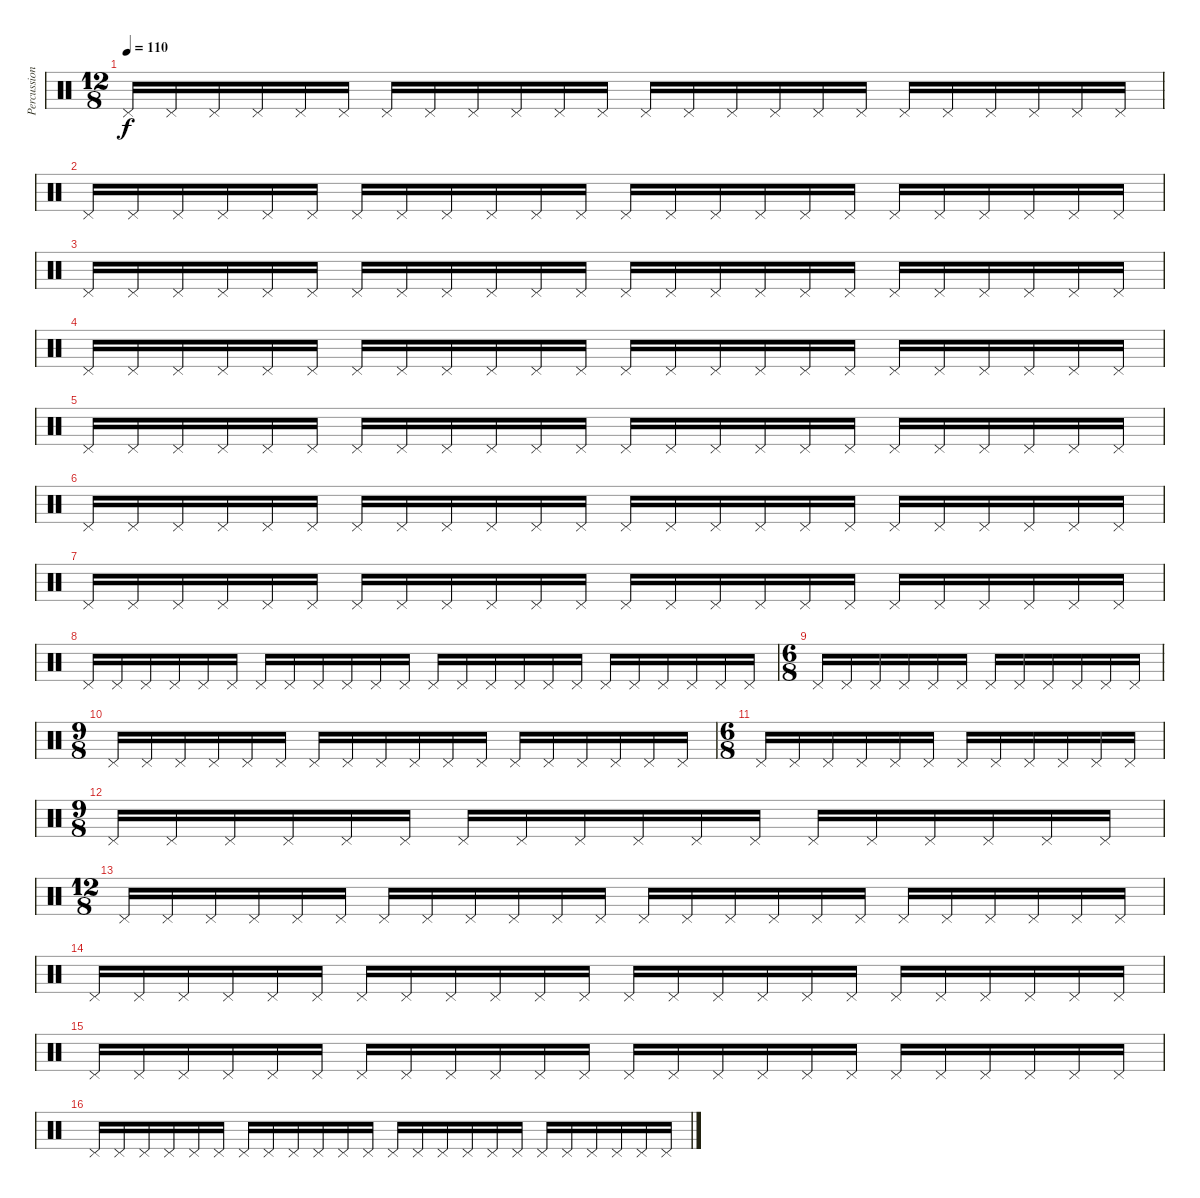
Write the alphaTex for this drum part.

\track ("Percussion" "Percussion") {instrument percussion}
\staff {score}
\articulation defaults
\ts (12 8)
\section ("" " ")
\tempo 110
\clef neutral
\ks c "Pedal Hi-Hat (hit)".16{dy f} "Pedal Hi-Hat (hit)".16 "Pedal Hi-Hat (hit)".16 "Pedal Hi-Hat (hit)".16 "Pedal Hi-Hat (hit)".16 "Pedal Hi-Hat (hit)".16 "Pedal Hi-Hat (hit)".16 "Pedal Hi-Hat (hit)".16 "Pedal Hi-Hat (hit)".16 "Pedal Hi-Hat (hit)".16 "Pedal Hi-Hat (hit)".16 "Pedal Hi-Hat (hit)".16 "Pedal Hi-Hat (hit)".16 "Pedal Hi-Hat (hit)".16 "Pedal Hi-Hat (hit)".16 "Pedal Hi-Hat (hit)".16 "Pedal Hi-Hat (hit)".16 "Pedal Hi-Hat (hit)".16 "Pedal Hi-Hat (hit)".16 "Pedal Hi-Hat (hit)".16 "Pedal Hi-Hat (hit)".16 "Pedal Hi-Hat (hit)".16 "Pedal Hi-Hat (hit)".16 "Pedal Hi-Hat (hit)".16
|
"Pedal Hi-Hat (hit)".16 "Pedal Hi-Hat (hit)".16 "Pedal Hi-Hat (hit)".16 "Pedal Hi-Hat (hit)".16 "Pedal Hi-Hat (hit)".16 "Pedal Hi-Hat (hit)".16 "Pedal Hi-Hat (hit)".16 "Pedal Hi-Hat (hit)".16 "Pedal Hi-Hat (hit)".16 "Pedal Hi-Hat (hit)".16 "Pedal Hi-Hat (hit)".16 "Pedal Hi-Hat (hit)".16 "Pedal Hi-Hat (hit)".16 "Pedal Hi-Hat (hit)".16 "Pedal Hi-Hat (hit)".16 "Pedal Hi-Hat (hit)".16 "Pedal Hi-Hat (hit)".16 "Pedal Hi-Hat (hit)".16 "Pedal Hi-Hat (hit)".16 "Pedal Hi-Hat (hit)".16 "Pedal Hi-Hat (hit)".16 "Pedal Hi-Hat (hit)".16 "Pedal Hi-Hat (hit)".16 "Pedal Hi-Hat (hit)".16 |
"Pedal Hi-Hat (hit)".16 "Pedal Hi-Hat (hit)".16 "Pedal Hi-Hat (hit)".16 "Pedal Hi-Hat (hit)".16 "Pedal Hi-Hat (hit)".16 "Pedal Hi-Hat (hit)".16 "Pedal Hi-Hat (hit)".16 "Pedal Hi-Hat (hit)".16 "Pedal Hi-Hat (hit)".16 "Pedal Hi-Hat (hit)".16 "Pedal Hi-Hat (hit)".16 "Pedal Hi-Hat (hit)".16 "Pedal Hi-Hat (hit)".16 "Pedal Hi-Hat (hit)".16 "Pedal Hi-Hat (hit)".16 "Pedal Hi-Hat (hit)".16 "Pedal Hi-Hat (hit)".16 "Pedal Hi-Hat (hit)".16 "Pedal Hi-Hat (hit)".16 "Pedal Hi-Hat (hit)".16 "Pedal Hi-Hat (hit)".16 "Pedal Hi-Hat (hit)".16 "Pedal Hi-Hat (hit)".16 "Pedal Hi-Hat (hit)".16 |
"Pedal Hi-Hat (hit)".16 "Pedal Hi-Hat (hit)".16 "Pedal Hi-Hat (hit)".16 "Pedal Hi-Hat (hit)".16 "Pedal Hi-Hat (hit)".16 "Pedal Hi-Hat (hit)".16 "Pedal Hi-Hat (hit)".16 "Pedal Hi-Hat (hit)".16 "Pedal Hi-Hat (hit)".16 "Pedal Hi-Hat (hit)".16 "Pedal Hi-Hat (hit)".16 "Pedal Hi-Hat (hit)".16 "Pedal Hi-Hat (hit)".16 "Pedal Hi-Hat (hit)".16 "Pedal Hi-Hat (hit)".16 "Pedal Hi-Hat (hit)".16 "Pedal Hi-Hat (hit)".16 "Pedal Hi-Hat (hit)".16 "Pedal Hi-Hat (hit)".16 "Pedal Hi-Hat (hit)".16 "Pedal Hi-Hat (hit)".16 "Pedal Hi-Hat (hit)".16 "Pedal Hi-Hat (hit)".16 "Pedal Hi-Hat (hit)".16 |
"Pedal Hi-Hat (hit)".16 "Pedal Hi-Hat (hit)".16 "Pedal Hi-Hat (hit)".16 "Pedal Hi-Hat (hit)".16 "Pedal Hi-Hat (hit)".16 "Pedal Hi-Hat (hit)".16 "Pedal Hi-Hat (hit)".16 "Pedal Hi-Hat (hit)".16 "Pedal Hi-Hat (hit)".16 "Pedal Hi-Hat (hit)".16 "Pedal Hi-Hat (hit)".16 "Pedal Hi-Hat (hit)".16 "Pedal Hi-Hat (hit)".16 "Pedal Hi-Hat (hit)".16 "Pedal Hi-Hat (hit)".16 "Pedal Hi-Hat (hit)".16 "Pedal Hi-Hat (hit)".16 "Pedal Hi-Hat (hit)".16 "Pedal Hi-Hat (hit)".16 "Pedal Hi-Hat (hit)".16 "Pedal Hi-Hat (hit)".16 "Pedal Hi-Hat (hit)".16 "Pedal Hi-Hat (hit)".16 "Pedal Hi-Hat (hit)".16 |
"Pedal Hi-Hat (hit)".16 "Pedal Hi-Hat (hit)".16 "Pedal Hi-Hat (hit)".16 "Pedal Hi-Hat (hit)".16 "Pedal Hi-Hat (hit)".16 "Pedal Hi-Hat (hit)".16 "Pedal Hi-Hat (hit)".16 "Pedal Hi-Hat (hit)".16 "Pedal Hi-Hat (hit)".16 "Pedal Hi-Hat (hit)".16 "Pedal Hi-Hat (hit)".16 "Pedal Hi-Hat (hit)".16 "Pedal Hi-Hat (hit)".16 "Pedal Hi-Hat (hit)".16 "Pedal Hi-Hat (hit)".16 "Pedal Hi-Hat (hit)".16 "Pedal Hi-Hat (hit)".16 "Pedal Hi-Hat (hit)".16 "Pedal Hi-Hat (hit)".16 "Pedal Hi-Hat (hit)".16 "Pedal Hi-Hat (hit)".16 "Pedal Hi-Hat (hit)".16 "Pedal Hi-Hat (hit)".16 "Pedal Hi-Hat (hit)".16 |
"Pedal Hi-Hat (hit)".16 "Pedal Hi-Hat (hit)".16 "Pedal Hi-Hat (hit)".16 "Pedal Hi-Hat (hit)".16 "Pedal Hi-Hat (hit)".16 "Pedal Hi-Hat (hit)".16 "Pedal Hi-Hat (hit)".16 "Pedal Hi-Hat (hit)".16 "Pedal Hi-Hat (hit)".16 "Pedal Hi-Hat (hit)".16 "Pedal Hi-Hat (hit)".16 "Pedal Hi-Hat (hit)".16 "Pedal Hi-Hat (hit)".16 "Pedal Hi-Hat (hit)".16 "Pedal Hi-Hat (hit)".16 "Pedal Hi-Hat (hit)".16 "Pedal Hi-Hat (hit)".16 "Pedal Hi-Hat (hit)".16 "Pedal Hi-Hat (hit)".16 "Pedal Hi-Hat (hit)".16 "Pedal Hi-Hat (hit)".16 "Pedal Hi-Hat (hit)".16 "Pedal Hi-Hat (hit)".16 "Pedal Hi-Hat (hit)".16 |
"Pedal Hi-Hat (hit)".16 "Pedal Hi-Hat (hit)".16 "Pedal Hi-Hat (hit)".16 "Pedal Hi-Hat (hit)".16 "Pedal Hi-Hat (hit)".16 "Pedal Hi-Hat (hit)".16 "Pedal Hi-Hat (hit)".16 "Pedal Hi-Hat (hit)".16 "Pedal Hi-Hat (hit)".16 "Pedal Hi-Hat (hit)".16 "Pedal Hi-Hat (hit)".16 "Pedal Hi-Hat (hit)".16 "Pedal Hi-Hat (hit)".16 "Pedal Hi-Hat (hit)".16 "Pedal Hi-Hat (hit)".16 "Pedal Hi-Hat (hit)".16 "Pedal Hi-Hat (hit)".16 "Pedal Hi-Hat (hit)".16 "Pedal Hi-Hat (hit)".16 "Pedal Hi-Hat (hit)".16 "Pedal Hi-Hat (hit)".16 "Pedal Hi-Hat (hit)".16 "Pedal Hi-Hat (hit)".16 "Pedal Hi-Hat (hit)".16 |
\ts (6 8)
\section ("" " ")
"Pedal Hi-Hat (hit)".16 "Pedal Hi-Hat (hit)".16 "Pedal Hi-Hat (hit)".16 "Pedal Hi-Hat (hit)".16 "Pedal Hi-Hat (hit)".16 "Pedal Hi-Hat (hit)".16 "Pedal Hi-Hat (hit)".16 "Pedal Hi-Hat (hit)".16 "Pedal Hi-Hat (hit)".16 "Pedal Hi-Hat (hit)".16 "Pedal Hi-Hat (hit)".16 "Pedal Hi-Hat (hit)".16 |
\ts (9 8)
"Pedal Hi-Hat (hit)".16 "Pedal Hi-Hat (hit)".16 "Pedal Hi-Hat (hit)".16 "Pedal Hi-Hat (hit)".16 "Pedal Hi-Hat (hit)".16 "Pedal Hi-Hat (hit)".16 "Pedal Hi-Hat (hit)".16 "Pedal Hi-Hat (hit)".16 "Pedal Hi-Hat (hit)".16 "Pedal Hi-Hat (hit)".16 "Pedal Hi-Hat (hit)".16 "Pedal Hi-Hat (hit)".16 "Pedal Hi-Hat (hit)".16 "Pedal Hi-Hat (hit)".16 "Pedal Hi-Hat (hit)".16 "Pedal Hi-Hat (hit)".16 "Pedal Hi-Hat (hit)".16 "Pedal Hi-Hat (hit)".16 |
\ts (6 8)
"Pedal Hi-Hat (hit)".16 "Pedal Hi-Hat (hit)".16 "Pedal Hi-Hat (hit)".16 "Pedal Hi-Hat (hit)".16 "Pedal Hi-Hat (hit)".16 "Pedal Hi-Hat (hit)".16 "Pedal Hi-Hat (hit)".16 "Pedal Hi-Hat (hit)".16 "Pedal Hi-Hat (hit)".16 "Pedal Hi-Hat (hit)".16 "Pedal Hi-Hat (hit)".16 "Pedal Hi-Hat (hit)".16 |
\ts (9 8)
"Pedal Hi-Hat (hit)".16 "Pedal Hi-Hat (hit)".16 "Pedal Hi-Hat (hit)".16 "Pedal Hi-Hat (hit)".16 "Pedal Hi-Hat (hit)".16 "Pedal Hi-Hat (hit)".16 "Pedal Hi-Hat (hit)".16 "Pedal Hi-Hat (hit)".16 "Pedal Hi-Hat (hit)".16 "Pedal Hi-Hat (hit)".16 "Pedal Hi-Hat (hit)".16 "Pedal Hi-Hat (hit)".16 "Pedal Hi-Hat (hit)".16 "Pedal Hi-Hat (hit)".16 "Pedal Hi-Hat (hit)".16 "Pedal Hi-Hat (hit)".16 "Pedal Hi-Hat (hit)".16 "Pedal Hi-Hat (hit)".16 |
\ts (12 8)
"Pedal Hi-Hat (hit)".16 "Pedal Hi-Hat (hit)".16 "Pedal Hi-Hat (hit)".16 "Pedal Hi-Hat (hit)".16 "Pedal Hi-Hat (hit)".16 "Pedal Hi-Hat (hit)".16 "Pedal Hi-Hat (hit)".16 "Pedal Hi-Hat (hit)".16 "Pedal Hi-Hat (hit)".16 "Pedal Hi-Hat (hit)".16 "Pedal Hi-Hat (hit)".16 "Pedal Hi-Hat (hit)".16 "Pedal Hi-Hat (hit)".16 "Pedal Hi-Hat (hit)".16 "Pedal Hi-Hat (hit)".16 "Pedal Hi-Hat (hit)".16 "Pedal Hi-Hat (hit)".16 "Pedal Hi-Hat (hit)".16 "Pedal Hi-Hat (hit)".16 "Pedal Hi-Hat (hit)".16 "Pedal Hi-Hat (hit)".16 "Pedal Hi-Hat (hit)".16 "Pedal Hi-Hat (hit)".16 "Pedal Hi-Hat (hit)".16 |
"Pedal Hi-Hat (hit)".16 "Pedal Hi-Hat (hit)".16 "Pedal Hi-Hat (hit)".16 "Pedal Hi-Hat (hit)".16 "Pedal Hi-Hat (hit)".16 "Pedal Hi-Hat (hit)".16 "Pedal Hi-Hat (hit)".16 "Pedal Hi-Hat (hit)".16 "Pedal Hi-Hat (hit)".16 "Pedal Hi-Hat (hit)".16 "Pedal Hi-Hat (hit)".16 "Pedal Hi-Hat (hit)".16 "Pedal Hi-Hat (hit)".16 "Pedal Hi-Hat (hit)".16 "Pedal Hi-Hat (hit)".16 "Pedal Hi-Hat (hit)".16 "Pedal Hi-Hat (hit)".16 "Pedal Hi-Hat (hit)".16 "Pedal Hi-Hat (hit)".16 "Pedal Hi-Hat (hit)".16 "Pedal Hi-Hat (hit)".16 "Pedal Hi-Hat (hit)".16 "Pedal Hi-Hat (hit)".16 "Pedal Hi-Hat (hit)".16 |
"Pedal Hi-Hat (hit)".16 "Pedal Hi-Hat (hit)".16 "Pedal Hi-Hat (hit)".16 "Pedal Hi-Hat (hit)".16 "Pedal Hi-Hat (hit)".16 "Pedal Hi-Hat (hit)".16 "Pedal Hi-Hat (hit)".16 "Pedal Hi-Hat (hit)".16 "Pedal Hi-Hat (hit)".16 "Pedal Hi-Hat (hit)".16 "Pedal Hi-Hat (hit)".16 "Pedal Hi-Hat (hit)".16 "Pedal Hi-Hat (hit)".16 "Pedal Hi-Hat (hit)".16 "Pedal Hi-Hat (hit)".16 "Pedal Hi-Hat (hit)".16 "Pedal Hi-Hat (hit)".16 "Pedal Hi-Hat (hit)".16 "Pedal Hi-Hat (hit)".16 "Pedal Hi-Hat (hit)".16 "Pedal Hi-Hat (hit)".16 "Pedal Hi-Hat (hit)".16 "Pedal Hi-Hat (hit)".16 "Pedal Hi-Hat (hit)".16 |
"Pedal Hi-Hat (hit)".16 "Pedal Hi-Hat (hit)".16 "Pedal Hi-Hat (hit)".16 "Pedal Hi-Hat (hit)".16 "Pedal Hi-Hat (hit)".16 "Pedal Hi-Hat (hit)".16 "Pedal Hi-Hat (hit)".16 "Pedal Hi-Hat (hit)".16 "Pedal Hi-Hat (hit)".16 "Pedal Hi-Hat (hit)".16 "Pedal Hi-Hat (hit)".16 "Pedal Hi-Hat (hit)".16 "Pedal Hi-Hat (hit)".16 "Pedal Hi-Hat (hit)".16 "Pedal Hi-Hat (hit)".16 "Pedal Hi-Hat (hit)".16 "Pedal Hi-Hat (hit)".16 "Pedal Hi-Hat (hit)".16 "Pedal Hi-Hat (hit)".16 "Pedal Hi-Hat (hit)".16 "Pedal Hi-Hat (hit)".16 "Pedal Hi-Hat (hit)".16 "Pedal Hi-Hat (hit)".16 "Pedal Hi-Hat (hit)".16
